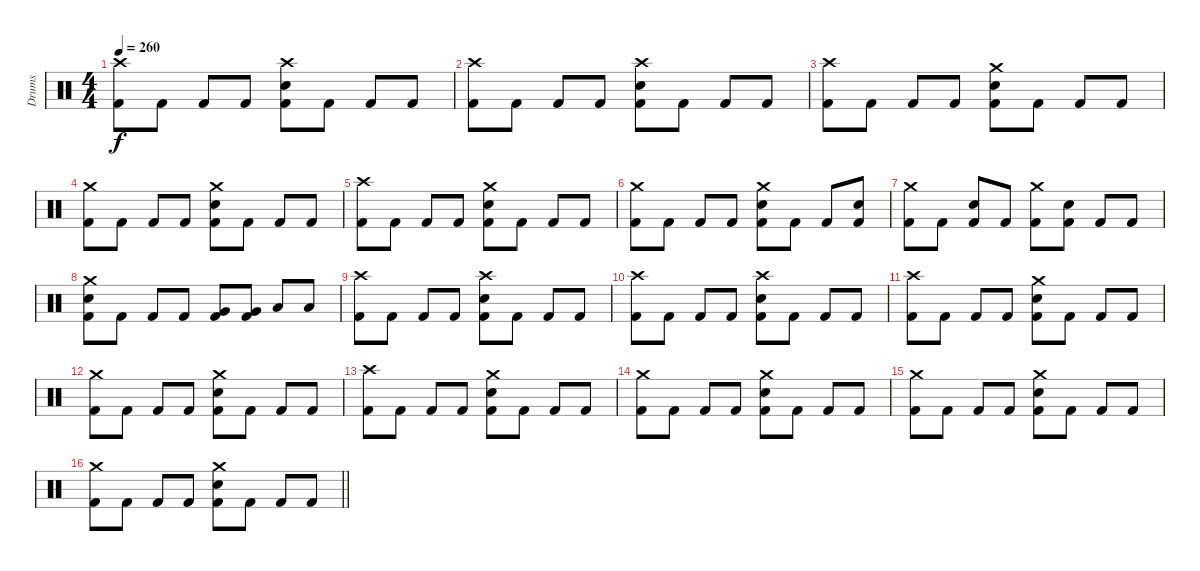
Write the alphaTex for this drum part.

\track ("Drums" "Drums") {instrument percussion}
\staff {score}
\articulation defaults
\ts (4 4)
\tempo 260
\clef neutral
\ks c
("Crash high (hit)" "Kick (hit) 2").8{dy f} "Kick (hit) 2".8 "Kick (hit) 2".8 "Kick (hit) 2".8 ("Crash high (hit)" "Electric Snare (hit)" "Kick (hit) 2").8 "Kick (hit) 2".8 "Kick (hit) 2".8 "Kick (hit) 2".8 |
("Crash high (hit)" "Kick (hit) 2").8 "Kick (hit) 2".8 "Kick (hit) 2".8 "Kick (hit) 2".8 ("Crash high (hit)" "Electric Snare (hit)" "Kick (hit) 2").8 "Kick (hit) 2".8 "Kick (hit) 2".8 "Kick (hit) 2".8 |
("Crash high (hit)" "Kick (hit) 2").8 "Kick (hit) 2".8 "Kick (hit) 2".8 "Kick (hit) 2".8 ("Crash medium (hit)" "Electric Snare (hit)" "Kick (hit) 2").8 "Kick (hit) 2".8 "Kick (hit) 2".8 "Kick (hit) 2".8 |
("Crash medium (hit)" "Kick (hit) 2").8 "Kick (hit) 2".8 "Kick (hit) 2".8 "Kick (hit) 2".8 ("Crash medium (hit)" "Electric Snare (hit)" "Kick (hit) 2").8 "Kick (hit) 2".8 "Kick (hit) 2".8 "Kick (hit) 2".8 |
("Crash high (hit)" "Kick (hit) 2").8 "Kick (hit) 2".8 "Kick (hit) 2".8 "Kick (hit) 2".8 ("Crash medium (hit)" "Electric Snare (hit)" "Kick (hit) 2").8 "Kick (hit) 2".8 "Kick (hit) 2".8 "Kick (hit) 2".8 |
("Crash medium (hit)" "Kick (hit) 2").8 "Kick (hit) 2".8 "Kick (hit) 2".8 "Kick (hit) 2".8 ("Crash medium (hit)" "Electric Snare (hit)" "Kick (hit) 2").8 "Kick (hit) 2".8 "Kick (hit) 2".8 ("Electric Snare (hit)" "Kick (hit) 2").8 |
("Crash medium (hit)" "Kick (hit) 2").8 "Kick (hit) 2".8 ("Electric Snare (hit)" "Kick (hit) 2").8 "Kick (hit) 2".8 ("Crash medium (hit)" "Kick (hit) 2").8 ("Electric Snare (hit)" "Kick (hit) 2").8 "Kick (hit) 2".8 "Kick (hit) 2".8 |
("Crash medium (hit)" "Electric Snare (hit)" "Kick (hit) 2").8 "Kick (hit) 2".8 "Kick (hit) 2".8 "Kick (hit) 2".8 ("Very Low Tom (hit)" "Kick (hit) 2").8 ("Very Low Tom (hit)" "Kick (hit) 2").8 "Low Floor Tom (hit)".8 "Low Floor Tom (hit)".8 |
("Crash high (hit)" "Kick (hit) 2").8 "Kick (hit) 2".8 "Kick (hit) 2".8 "Kick (hit) 2".8 ("Crash high (hit)" "Electric Snare (hit)" "Kick (hit) 2").8 "Kick (hit) 2".8 "Kick (hit) 2".8 "Kick (hit) 2".8 |
("Crash high (hit)" "Kick (hit) 2").8 "Kick (hit) 2".8 "Kick (hit) 2".8 "Kick (hit) 2".8 ("Crash high (hit)" "Electric Snare (hit)" "Kick (hit) 2").8 "Kick (hit) 2".8 "Kick (hit) 2".8 "Kick (hit) 2".8 |
("Crash high (hit)" "Kick (hit) 2").8 "Kick (hit) 2".8 "Kick (hit) 2".8 "Kick (hit) 2".8 ("Crash medium (hit)" "Electric Snare (hit)" "Kick (hit) 2").8 "Kick (hit) 2".8 "Kick (hit) 2".8 "Kick (hit) 2".8 |
("Crash medium (hit)" "Kick (hit) 2").8 "Kick (hit) 2".8 "Kick (hit) 2".8 "Kick (hit) 2".8 ("Crash medium (hit)" "Electric Snare (hit)" "Kick (hit) 2").8 "Kick (hit) 2".8 "Kick (hit) 2".8 "Kick (hit) 2".8 |
("Crash high (hit)" "Kick (hit) 2").8 "Kick (hit) 2".8 "Kick (hit) 2".8 "Kick (hit) 2".8 ("Crash medium (hit)" "Electric Snare (hit)" "Kick (hit) 2").8 "Kick (hit) 2".8 "Kick (hit) 2".8 "Kick (hit) 2".8 |
("Crash medium (hit)" "Kick (hit) 2").8 "Kick (hit) 2".8 "Kick (hit) 2".8 "Kick (hit) 2".8 ("Crash medium (hit)" "Electric Snare (hit)" "Kick (hit) 2").8 "Kick (hit) 2".8 "Kick (hit) 2".8 "Kick (hit) 2".8 |
("Crash medium (hit)" "Kick (hit) 2").8 "Kick (hit) 2".8 "Kick (hit) 2".8 "Kick (hit) 2".8 ("Crash medium (hit)" "Electric Snare (hit)" "Kick (hit) 2").8 "Kick (hit) 2".8 "Kick (hit) 2".8 "Kick (hit) 2".8 |
\barLineRight lightlight
("Crash medium (hit)" "Kick (hit) 2").8 "Kick (hit) 2".8 "Kick (hit) 2".8 "Kick (hit) 2".8 ("Crash medium (hit)" "Electric Snare (hit)" "Kick (hit) 2").8 "Kick (hit) 2".8 "Kick (hit) 2".8 "Kick (hit) 2".8
